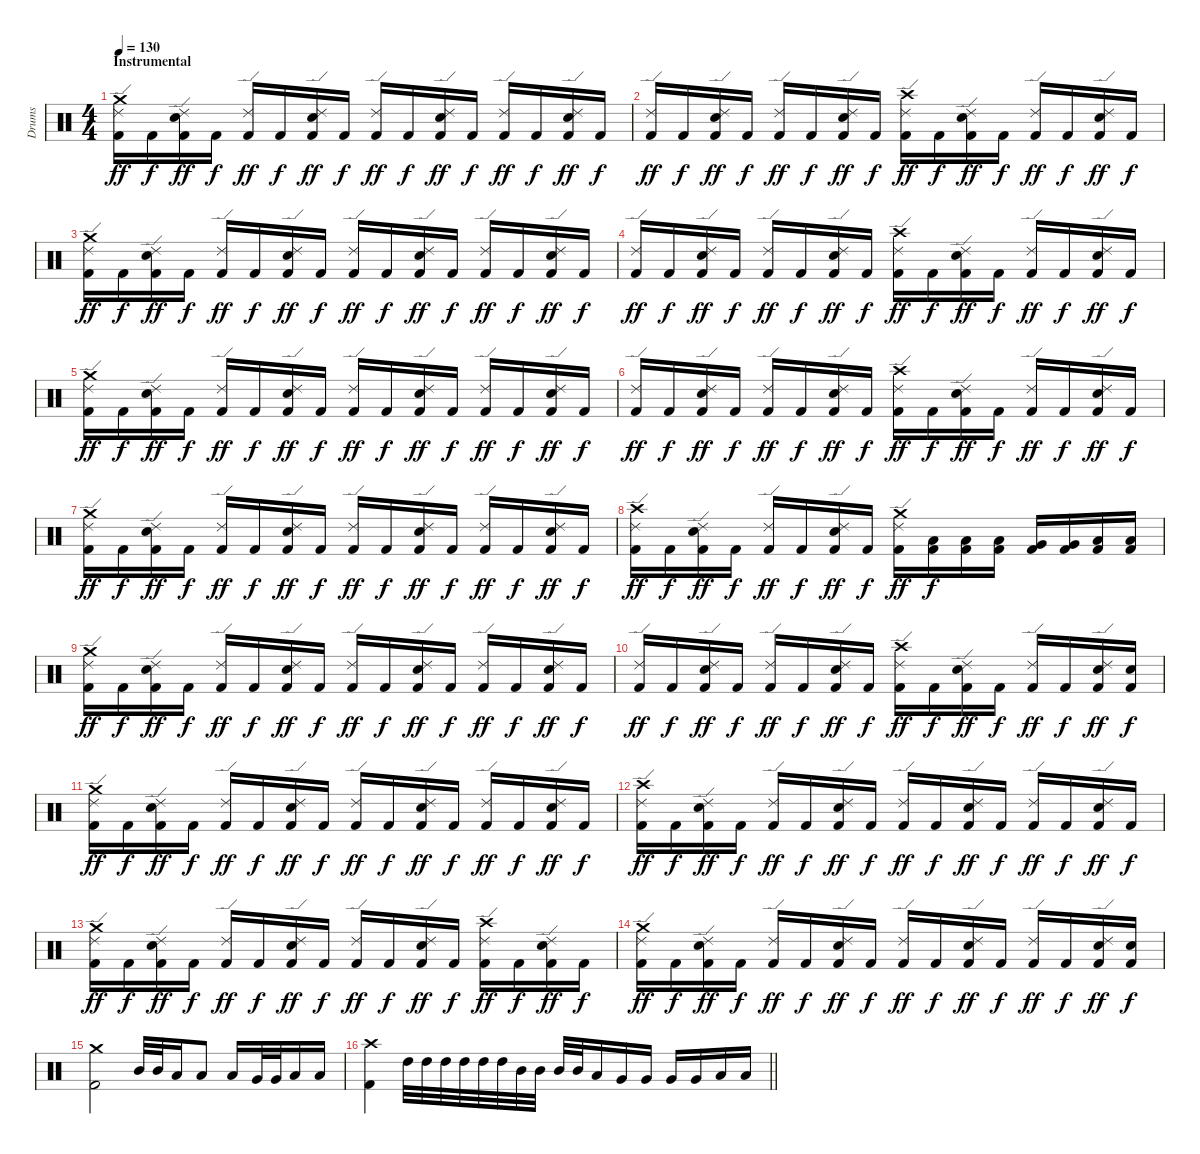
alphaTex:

\track ("Drums" "Drums") {instrument percussion}
\staff {score}
\articulation defaults
\ts (4 4)
\section ("" "Instrumental")
\tempo 130
\clef neutral
\ks c
("Crash medium (hit)" "Ride (edge) 2" "Kick (hit) 2").16{dy ff} "Kick (hit) 2".16{dy f} ("Ride (edge) 2" "Snare (hit) 2" "Kick (hit) 2").16{dy ff} "Kick (hit) 2".16{dy f} ("Ride (edge) 2" "Kick (hit) 2").16{dy ff} "Kick (hit) 2".16{dy f} ("Ride (edge) 2" "Snare (hit) 2" "Kick (hit) 2").16{dy ff} "Kick (hit) 2".16{dy f} ("Ride (edge) 2" "Kick (hit) 2").16{dy ff} "Kick (hit) 2".16{dy f} ("Ride (edge) 2" "Snare (hit) 2" "Kick (hit) 2").16{dy ff} "Kick (hit) 2".16{dy f} ("Ride (edge) 2" "Kick (hit) 2").16{dy ff} "Kick (hit) 2".16{dy f} ("Ride (edge) 2" "Snare (hit) 2" "Kick (hit) 2").16{dy ff} "Kick (hit) 2".16{dy f} |
("Ride (edge) 2" "Kick (hit) 2").16{dy ff} "Kick (hit) 2".16{dy f} ("Ride (edge) 2" "Snare (hit) 2" "Kick (hit) 2").16{dy ff} "Kick (hit) 2".16{dy f} ("Ride (edge) 2" "Kick (hit) 2").16{dy ff} "Kick (hit) 2".16{dy f} ("Ride (edge) 2" "Snare (hit) 2" "Kick (hit) 2").16{dy ff} "Kick (hit) 2".16{dy f} ("Crash high (hit)" "Ride (edge) 2" "Kick (hit) 2").16{dy ff} "Kick (hit) 2".16{dy f} ("Ride (edge) 2" "Snare (hit) 2" "Kick (hit) 2").16{dy ff} "Kick (hit) 2".16{dy f} ("Ride (edge) 2" "Kick (hit) 2").16{dy ff} "Kick (hit) 2".16{dy f} ("Ride (edge) 2" "Snare (hit) 2" "Kick (hit) 2").16{dy ff} "Kick (hit) 2".16{dy f} |
("Crash medium (hit)" "Ride (edge) 2" "Kick (hit) 2").16{dy ff} "Kick (hit) 2".16{dy f} ("Ride (edge) 2" "Snare (hit) 2" "Kick (hit) 2").16{dy ff} "Kick (hit) 2".16{dy f} ("Ride (edge) 2" "Kick (hit) 2").16{dy ff} "Kick (hit) 2".16{dy f} ("Ride (edge) 2" "Snare (hit) 2" "Kick (hit) 2").16{dy ff} "Kick (hit) 2".16{dy f} ("Ride (edge) 2" "Kick (hit) 2").16{dy ff} "Kick (hit) 2".16{dy f} ("Ride (edge) 2" "Snare (hit) 2" "Kick (hit) 2").16{dy ff} "Kick (hit) 2".16{dy f} ("Ride (edge) 2" "Kick (hit) 2").16{dy ff} "Kick (hit) 2".16{dy f} ("Ride (edge) 2" "Snare (hit) 2" "Kick (hit) 2").16{dy ff} "Kick (hit) 2".16{dy f} |
("Ride (edge) 2" "Kick (hit) 2").16{dy ff} "Kick (hit) 2".16{dy f} ("Ride (edge) 2" "Snare (hit) 2" "Kick (hit) 2").16{dy ff} "Kick (hit) 2".16{dy f} ("Ride (edge) 2" "Kick (hit) 2").16{dy ff} "Kick (hit) 2".16{dy f} ("Ride (edge) 2" "Snare (hit) 2" "Kick (hit) 2").16{dy ff} "Kick (hit) 2".16{dy f} ("Crash high (hit)" "Ride (edge) 2" "Kick (hit) 2").16{dy ff} "Kick (hit) 2".16{dy f} ("Ride (edge) 2" "Snare (hit) 2" "Kick (hit) 2").16{dy ff} "Kick (hit) 2".16{dy f} ("Ride (edge) 2" "Kick (hit) 2").16{dy ff} "Kick (hit) 2".16{dy f} ("Ride (edge) 2" "Snare (hit) 2" "Kick (hit) 2").16{dy ff} "Kick (hit) 2".16{dy f} |
("Crash medium (hit)" "Ride (edge) 2" "Kick (hit) 2").16{dy ff} "Kick (hit) 2".16{dy f} ("Ride (edge) 2" "Snare (hit) 2" "Kick (hit) 2").16{dy ff} "Kick (hit) 2".16{dy f} ("Ride (edge) 2" "Kick (hit) 2").16{dy ff} "Kick (hit) 2".16{dy f} ("Ride (edge) 2" "Snare (hit) 2" "Kick (hit) 2").16{dy ff} "Kick (hit) 2".16{dy f} ("Ride (edge) 2" "Kick (hit) 2").16{dy ff} "Kick (hit) 2".16{dy f} ("Ride (edge) 2" "Snare (hit) 2" "Kick (hit) 2").16{dy ff} "Kick (hit) 2".16{dy f} ("Ride (edge) 2" "Kick (hit) 2").16{dy ff} "Kick (hit) 2".16{dy f} ("Ride (edge) 2" "Snare (hit) 2" "Kick (hit) 2").16{dy ff} "Kick (hit) 2".16{dy f} |
("Ride (edge) 2" "Kick (hit) 2").16{dy ff} "Kick (hit) 2".16{dy f} ("Ride (edge) 2" "Snare (hit) 2" "Kick (hit) 2").16{dy ff} "Kick (hit) 2".16{dy f} ("Ride (edge) 2" "Kick (hit) 2").16{dy ff} "Kick (hit) 2".16{dy f} ("Ride (edge) 2" "Snare (hit) 2" "Kick (hit) 2").16{dy ff} "Kick (hit) 2".16{dy f} ("Crash high (hit)" "Ride (edge) 2" "Kick (hit) 2").16{dy ff} "Kick (hit) 2".16{dy f} ("Ride (edge) 2" "Snare (hit) 2" "Kick (hit) 2").16{dy ff} "Kick (hit) 2".16{dy f} ("Ride (edge) 2" "Kick (hit) 2").16{dy ff} "Kick (hit) 2".16{dy f} ("Ride (edge) 2" "Snare (hit) 2" "Kick (hit) 2").16{dy ff} "Kick (hit) 2".16{dy f} |
("Crash medium (hit)" "Ride (edge) 2" "Kick (hit) 2").16{dy ff} "Kick (hit) 2".16{dy f} ("Ride (edge) 2" "Snare (hit) 2" "Kick (hit) 2").16{dy ff} "Kick (hit) 2".16{dy f} ("Ride (edge) 2" "Kick (hit) 2").16{dy ff} "Kick (hit) 2".16{dy f} ("Ride (edge) 2" "Snare (hit) 2" "Kick (hit) 2").16{dy ff} "Kick (hit) 2".16{dy f} ("Ride (edge) 2" "Kick (hit) 2").16{dy ff} "Kick (hit) 2".16{dy f} ("Ride (edge) 2" "Snare (hit) 2" "Kick (hit) 2").16{dy ff} "Kick (hit) 2".16{dy f} ("Ride (edge) 2" "Kick (hit) 2").16{dy ff} "Kick (hit) 2".16{dy f} ("Ride (edge) 2" "Snare (hit) 2" "Kick (hit) 2").16{dy ff} "Kick (hit) 2".16{dy f} |
("Crash high (hit)" "Ride (edge) 2" "Kick (hit) 2").16{dy ff} "Kick (hit) 2".16{dy f} ("Ride (edge) 2" "Snare (hit) 2" "Kick (hit) 2").16{dy ff} "Kick (hit) 2".16{dy f} ("Ride (edge) 2" "Kick (hit) 2").16{dy ff} "Kick (hit) 2".16{dy f} ("Ride (edge) 2" "Snare (hit) 2" "Kick (hit) 2").16{dy ff} "Kick (hit) 2".16{dy f} ("Crash medium (hit)" "Ride (edge) 2" "Kick (hit) 2").16{dy ff} ("Low Tom (hit)" "Kick (hit) 2").16{dy f} ("Low Tom (hit)" "Kick (hit) 2").16 ("Low Tom (hit)" "Kick (hit) 2").16 ("Very Low Tom (hit)" "Kick (hit) 2").16 ("Very Low Tom (hit)" "Kick (hit) 2").16 ("Low Floor Tom (hit)" "Kick (hit) 2").16 ("Low Floor Tom (hit)" "Kick (hit) 2").16 |
("Crash medium (hit)" "Ride (edge) 2" "Kick (hit) 2").16{dy ff} "Kick (hit) 2".16{dy f} ("Ride (edge) 2" "Snare (hit) 2" "Kick (hit) 2").16{dy ff} "Kick (hit) 2".16{dy f} ("Ride (edge) 2" "Kick (hit) 2").16{dy ff} "Kick (hit) 2".16{dy f} ("Ride (edge) 2" "Snare (hit) 2" "Kick (hit) 2").16{dy ff} "Kick (hit) 2".16{dy f} ("Ride (edge) 2" "Kick (hit) 2").16{dy ff} "Kick (hit) 2".16{dy f} ("Ride (edge) 2" "Snare (hit) 2" "Kick (hit) 2").16{dy ff} "Kick (hit) 2".16{dy f} ("Ride (edge) 2" "Kick (hit) 2").16{dy ff} "Kick (hit) 2".16{dy f} ("Ride (edge) 2" "Snare (hit) 2" "Kick (hit) 2").16{dy ff} "Kick (hit) 2".16{dy f} |
("Ride (edge) 2" "Kick (hit) 2").16{dy ff} "Kick (hit) 2".16{dy f} ("Ride (edge) 2" "Snare (hit) 2" "Kick (hit) 2").16{dy ff} "Kick (hit) 2".16{dy f} ("Ride (edge) 2" "Kick (hit) 2").16{dy ff} "Kick (hit) 2".16{dy f} ("Ride (edge) 2" "Snare (hit) 2" "Kick (hit) 2").16{dy ff} "Kick (hit) 2".16{dy f} ("Crash high (hit)" "Ride (edge) 2" "Kick (hit) 2").16{dy ff} "Kick (hit) 2".16{dy f} ("Ride (edge) 2" "Snare (hit) 2" "Kick (hit) 2").16{dy ff} "Kick (hit) 2".16{dy f} ("Ride (edge) 2" "Kick (hit) 2").16{dy ff} "Kick (hit) 2".16{dy f} ("Ride (edge) 2" "Snare (hit) 2" "Kick (hit) 2").16{dy ff} ("Snare (hit) 2" "Kick (hit) 2").16{dy f} |
("Crash medium (hit)" "Ride (edge) 2" "Kick (hit) 2").16{dy ff} "Kick (hit) 2".16{dy f} ("Ride (edge) 2" "Snare (hit) 2" "Kick (hit) 2").16{dy ff} "Kick (hit) 2".16{dy f} ("Ride (edge) 2" "Kick (hit) 2").16{dy ff} "Kick (hit) 2".16{dy f} ("Ride (edge) 2" "Snare (hit) 2" "Kick (hit) 2").16{dy ff} "Kick (hit) 2".16{dy f} ("Ride (edge) 2" "Kick (hit) 2").16{dy ff} "Kick (hit) 2".16{dy f} ("Ride (edge) 2" "Snare (hit) 2" "Kick (hit) 2").16{dy ff} "Kick (hit) 2".16{dy f} ("Ride (edge) 2" "Kick (hit) 2").16{dy ff} "Kick (hit) 2".16{dy f} ("Ride (edge) 2" "Snare (hit) 2" "Kick (hit) 2").16{dy ff} "Kick (hit) 2".16{dy f} |
("Crash high (hit)" "Ride (edge) 2" "Kick (hit) 2").16{dy ff} "Kick (hit) 2".16{dy f} ("Ride (edge) 2" "Snare (hit) 2" "Kick (hit) 2").16{dy ff} "Kick (hit) 2".16{dy f} ("Ride (edge) 2" "Kick (hit) 2").16{dy ff} "Kick (hit) 2".16{dy f} ("Ride (edge) 2" "Snare (hit) 2" "Kick (hit) 2").16{dy ff} "Kick (hit) 2".16{dy f} ("Ride (edge) 2" "Kick (hit) 2").16{dy ff} "Kick (hit) 2".16{dy f} ("Ride (edge) 2" "Snare (hit) 2" "Kick (hit) 2").16{dy ff} "Kick (hit) 2".16{dy f} ("Ride (edge) 2" "Kick (hit) 2").16{dy ff} "Kick (hit) 2".16{dy f} ("Ride (edge) 2" "Snare (hit) 2" "Kick (hit) 2").16{dy ff} "Kick (hit) 2".16{dy f} |
("Crash medium (hit)" "Ride (edge) 2" "Kick (hit) 2").16{dy ff} "Kick (hit) 2".16{dy f} ("Ride (edge) 2" "Snare (hit) 2" "Kick (hit) 2").16{dy ff} "Kick (hit) 2".16{dy f} ("Ride (edge) 2" "Kick (hit) 2").16{dy ff} "Kick (hit) 2".16{dy f} ("Ride (edge) 2" "Snare (hit) 2" "Kick (hit) 2").16{dy ff} "Kick (hit) 2".16{dy f} ("Ride (edge) 2" "Kick (hit) 2").16{dy ff} "Kick (hit) 2".16{dy f} ("Ride (edge) 2" "Snare (hit) 2" "Kick (hit) 2").16{dy ff} "Kick (hit) 2".16{dy f} ("Crash high (hit)" "Ride (edge) 2" "Kick (hit) 2").16{dy ff} "Kick (hit) 2".16{dy f} ("Ride (edge) 2" "Snare (hit) 2" "Kick (hit) 2").16{dy ff} "Kick (hit) 2".16{dy f} |
("Crash medium (hit)" "Ride (edge) 2" "Kick (hit) 2").16{dy ff} "Kick (hit) 2".16{dy f} ("Ride (edge) 2" "Snare (hit) 2" "Kick (hit) 2").16{dy ff} "Kick (hit) 2".16{dy f} ("Ride (edge) 2" "Kick (hit) 2").16{dy ff} "Kick (hit) 2".16{dy f} ("Ride (edge) 2" "Snare (hit) 2" "Kick (hit) 2").16{dy ff} "Kick (hit) 2".16{dy f} ("Ride (edge) 2" "Kick (hit) 2").16{dy ff} "Kick (hit) 2".16{dy f} ("Ride (edge) 2" "Snare (hit) 2" "Kick (hit) 2").16{dy ff} "Kick (hit) 2".16{dy f} ("Ride (edge) 2" "Kick (hit) 2").16{dy ff} "Kick (hit) 2".16{dy f} ("Ride (edge) 2" "Snare (hit) 2" "Kick (hit) 2").16{dy ff} ("Snare (hit) 2" "Kick (hit) 2").16{dy f} |
("Crash medium (hit)" "Kick (hit) 2").2 "Mid Tom (hit)".32 "Mid Tom (hit)".32 "Low Tom (hit)".16 "Low Tom (hit)".8 "Low Tom (hit)".16 "Very Low Tom (hit)".32 "Very Low Tom (hit)".32 "Low Floor Tom (hit)".16 "Low Floor Tom (hit)".16 |
\barLineRight lightlight
("Crash high (hit)" "Kick (hit) 2").4 "High Tom (hit)".32 "High Tom (hit)".32 "High Tom (hit)".32 "High Tom (hit)".32 "High Tom (hit)".32 "High Tom (hit)".32 "Mid Tom (hit)".32 "Mid Tom (hit)".32 "Mid Tom (hit)".32 "Mid Tom (hit)".32 "Low Tom (hit)".16 "Very Low Tom (hit)".16 "Very Low Tom (hit)".16 "Very Low Tom (hit)".16 "Very Low Tom (hit)".16 "Low Floor Tom (hit)".16 "Low Floor Tom (hit)".16
